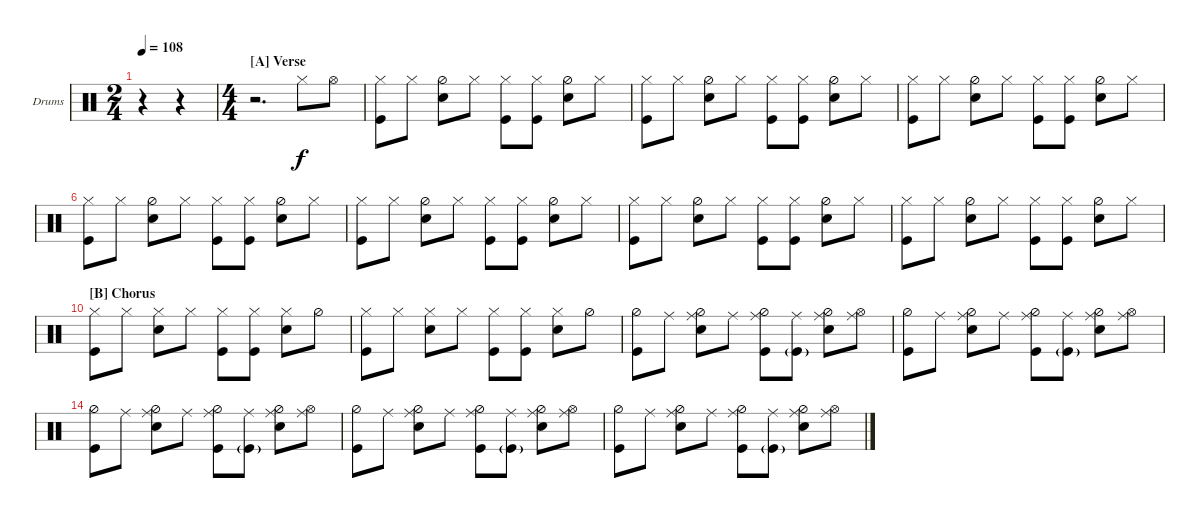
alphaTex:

\defaultSystemsLayout 4
\bracketExtendMode nobrackets
\firstSystemTrackNameOrientation horizontal
\otherSystemsTrackNameOrientation horizontal
\defaultBarNumberDisplay FirstOfSystem
\track ("Drumkit" "Drums") {instrument percussion}
\staff {score}
\articulation defaults
\ts (2 4)
\tempo 108
\clef neutral
\scale
0.271462
\ks c
r.4{dy f} r.4 |
\ts (4 4)
\section ("A" "Verse")
\scale
0.371729 r.2{d} "Hi-Hat (closed)".8 "Hi-Hat (open)".8 |
\scale
0.356952 ("Kick (hit)" "Hi-Hat (closed)").8 "Hi-Hat (closed)".8 ("Snare (hit) 2" "Hi-Hat (half)").8 "Hi-Hat (closed)".8 ("Kick (hit)" "Hi-Hat (closed)").8 ("Hi-Hat (closed)" "Kick (hit)").8 ("Snare (hit) 2" "Hi-Hat (half)").8 "Hi-Hat (closed)".8 |
("Kick (hit)" "Hi-Hat (closed)").8 "Hi-Hat (closed)".8 ("Snare (hit) 2" "Hi-Hat (half)").8 "Hi-Hat (closed)".8 ("Hi-Hat (closed)" "Kick (hit)").8 ("Hi-Hat (closed)" "Kick (hit)").8 ("Snare (hit) 2" "Hi-Hat (half)").8 "Hi-Hat (closed)".8 |
("Kick (hit)" "Hi-Hat (closed)").8 "Hi-Hat (closed)".8 ("Snare (hit) 2" "Hi-Hat (half)").8 "Hi-Hat (closed)".8 ("Kick (hit)" "Hi-Hat (closed)").8 ("Hi-Hat (closed)" "Kick (hit)").8 ("Snare (hit) 2" "Hi-Hat (half)").8 "Hi-Hat (closed)".8 |
("Kick (hit)" "Hi-Hat (closed)").8 "Hi-Hat (closed)".8 ("Snare (hit) 2" "Hi-Hat (half)").8 "Hi-Hat (closed)".8 ("Hi-Hat (closed)" "Kick (hit)").8 ("Hi-Hat (closed)" "Kick (hit)").8 ("Snare (hit) 2" "Hi-Hat (half)").8 "Hi-Hat (closed)".8 |
("Kick (hit)" "Hi-Hat (closed)").8 "Hi-Hat (closed)".8 ("Snare (hit) 2" "Hi-Hat (half)").8 "Hi-Hat (closed)".8 ("Kick (hit)" "Hi-Hat (closed)").8 ("Hi-Hat (closed)" "Kick (hit)").8 ("Snare (hit) 2" "Hi-Hat (half)").8 "Hi-Hat (closed)".8 |
("Kick (hit)" "Hi-Hat (closed)").8 "Hi-Hat (closed)".8 ("Snare (hit) 2" "Hi-Hat (half)").8 "Hi-Hat (closed)".8 ("Hi-Hat (closed)" "Kick (hit)").8 ("Hi-Hat (closed)" "Kick (hit)").8 ("Snare (hit) 2" "Hi-Hat (half)").8 "Hi-Hat (closed)".8 |
("Kick (hit)" "Hi-Hat (closed)").8 "Hi-Hat (closed)".8 ("Snare (hit) 2" "Hi-Hat (half)").8 "Hi-Hat (closed)".8 ("Hi-Hat (closed)" "Kick (hit)").8 ("Hi-Hat (closed)" "Kick (hit)").8 ("Snare (hit) 2" "Hi-Hat (half)").8 "Hi-Hat (closed)".8 |
\section ("B" "Chorus")
\scale
0.209424 ("Kick (hit)" "Hi-Hat (closed)").8 "Hi-Hat (closed)".8 ("Snare (hit) 2" "Hi-Hat (closed)").8 "Hi-Hat (closed)".8 ("Hi-Hat (closed)" "Kick (hit)").8 ("Hi-Hat (closed)" "Kick (hit)").8 ("Snare (hit) 2" "Hi-Hat (closed)").8 "Hi-Hat (half)".8 |
\scale
0.209424 ("Kick (hit)" "Hi-Hat (closed)").8 "Hi-Hat (closed)".8 ("Snare (hit) 2" "Hi-Hat (closed)").8 "Hi-Hat (closed)".8 ("Hi-Hat (closed)" "Kick (hit)").8 ("Hi-Hat (closed)" "Kick (hit)").8 ("Snare (hit) 2" "Hi-Hat (closed)").8 "Hi-Hat (half)".8 |
\scale
0.290576 ("Kick (hit)" "Hi-Hat (half)").8 "Ride (middle)".8 ("Snare (hit) 2" "Hi-Hat (half)" "Ride (middle)").8 "Ride (middle)".8 ("Kick (hit)" "Hi-Hat (half)" "Ride (middle)").8 ("Kick (hit)"{g} "Ride (middle)").8 ("Snare (hit) 2" "Hi-Hat (half)" "Ride (middle)").8 ("Hi-Hat (open)" "Ride (middle)").8 |
\scale
0.290576 ("Kick (hit)" "Hi-Hat (half)").8 "Ride (middle)".8 ("Snare (hit) 2" "Hi-Hat (half)" "Ride (middle)").8 "Ride (middle)".8 ("Kick (hit)" "Hi-Hat (half)" "Ride (middle)").8 ("Kick (hit)"{g} "Ride (middle)").8 ("Snare (hit) 2" "Hi-Hat (half)" "Ride (middle)").8 ("Hi-Hat (open)" "Ride (middle)").8 |
("Kick (hit)" "Hi-Hat (half)").8 "Ride (middle)".8 ("Snare (hit) 2" "Hi-Hat (half)" "Ride (middle)").8 "Ride (middle)".8 ("Kick (hit)" "Hi-Hat (half)" "Ride (middle)").8 ("Kick (hit)"{g} "Ride (middle)").8 ("Snare (hit) 2" "Hi-Hat (half)" "Ride (middle)").8 ("Hi-Hat (open)" "Ride (middle)").8 |
("Kick (hit)" "Hi-Hat (half)").8 "Ride (middle)".8 ("Snare (hit) 2" "Hi-Hat (half)" "Ride (middle)").8 "Ride (middle)".8 ("Kick (hit)" "Hi-Hat (half)" "Ride (middle)").8 ("Kick (hit)"{g} "Ride (middle)").8 ("Snare (hit) 2" "Hi-Hat (half)" "Ride (middle)").8 ("Hi-Hat (open)" "Ride (middle)").8 |
("Kick (hit)" "Hi-Hat (half)").8 "Ride (middle)".8 ("Snare (hit) 2" "Hi-Hat (half)" "Ride (middle)").8 "Ride (middle)".8 ("Kick (hit)" "Hi-Hat (half)" "Ride (middle)").8 ("Kick (hit)"{g} "Ride (middle)").8 ("Snare (hit) 2" "Hi-Hat (half)" "Ride (middle)").8 ("Hi-Hat (open)" "Ride (middle)").8
